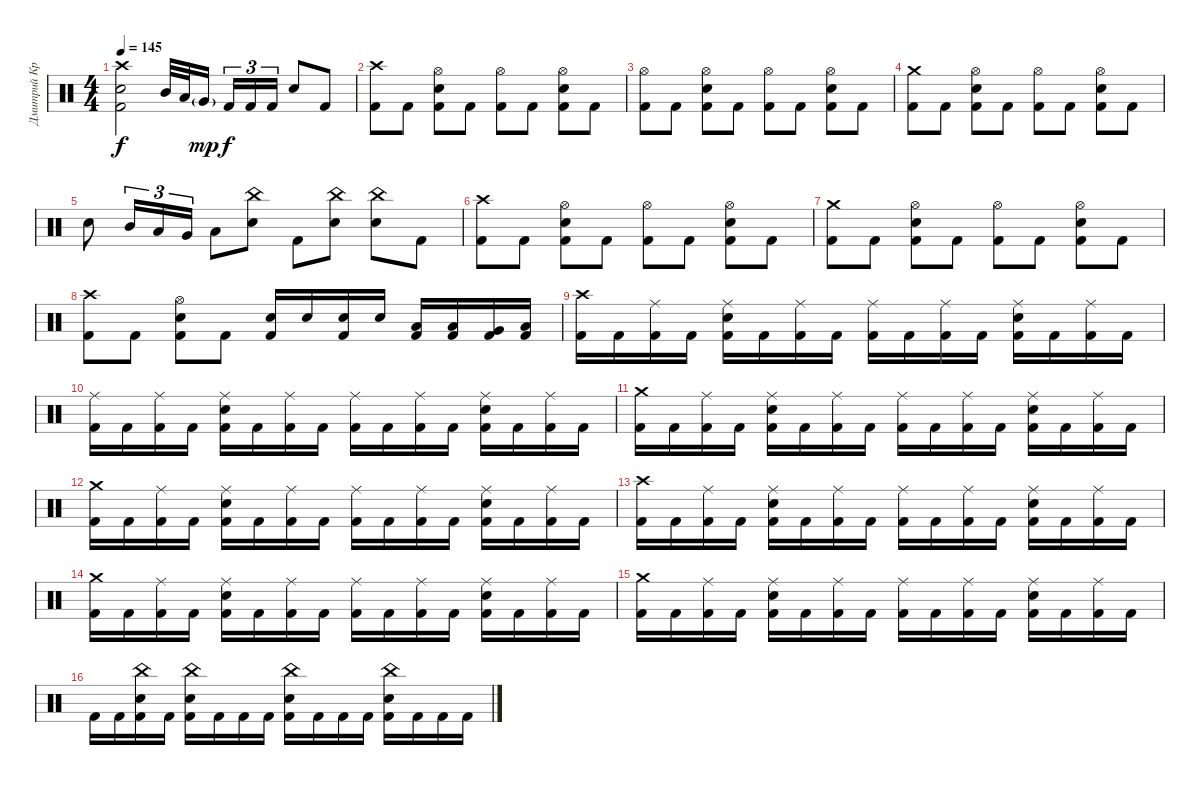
\track ("Дмитрий Кривенков" "Дмитрий Кр") {instrument percussion}
\staff {score}
\articulation defaults
\ts (4 4)
\tempo 145
\clef neutral
\ks c
("Crash high (hit)" "Electric Snare (hit)" "Kick (hit) 2").2{dy f} "Mid Tom (hit)".32 "Low Tom (hit)".32 "Very Low Tom (hit)"{g}.16{dy mp beam splitsecondary} "Kick (hit) 2".16{tu (3 2) dy f} "Kick (hit) 2".16{tu (3 2)} "Kick (hit) 2".16{tu (3 2)} "Electric Snare (hit)".8 "Kick (hit) 2".8 |
("Crash high (hit)" "Kick (hit) 2").8 "Kick (hit) 2".8 ("Hi-Hat (open)" "Electric Snare (hit)" "Kick (hit) 2").8 "Kick (hit) 2".8 ("Hi-Hat (open)" "Kick (hit) 2").8 "Kick (hit) 2".8 ("Hi-Hat (open)" "Electric Snare (hit)" "Kick (hit) 2").8 "Kick (hit) 2".8 |
("Hi-Hat (open)" "Kick (hit) 2").8 "Kick (hit) 2".8 ("Hi-Hat (open)" "Electric Snare (hit)" "Kick (hit) 2").8 "Kick (hit) 2".8 ("Hi-Hat (open)" "Kick (hit) 2").8 "Kick (hit) 2".8 ("Hi-Hat (open)" "Electric Snare (hit)" "Kick (hit) 2").8 "Kick (hit) 2".8 |
("Crash medium (hit)" "Kick (hit) 2").8 "Kick (hit) 2".8 ("Hi-Hat (open)" "Electric Snare (hit)" "Kick (hit) 2").8 "Kick (hit) 2".8 ("Hi-Hat (open)" "Kick (hit) 2").8 "Kick (hit) 2".8 ("Hi-Hat (open)" "Electric Snare (hit)" "Kick (hit) 2").8 "Kick (hit) 2".8 |
"Electric Snare (hit)".8 "Mid Tom (hit)".16{tu (3 2)} "Low Tom (hit)".16{tu (3 2)} "Very Low Tom (hit)".16{tu (3 2)} "Low Floor Tom (hit)".8 ("China (hit)" "Electric Snare (hit)").8 "Kick (hit) 2".8 ("China (hit)" "Electric Snare (hit)").8 ("China (hit)" "Electric Snare (hit)").8 "Kick (hit) 2".8 |
("Crash high (hit)" "Kick (hit) 2").8 "Kick (hit) 2".8 ("Hi-Hat (open)" "Electric Snare (hit)" "Kick (hit) 2").8 "Kick (hit) 2".8 ("Hi-Hat (open)" "Kick (hit) 2").8 "Kick (hit) 2".8 ("Hi-Hat (open)" "Electric Snare (hit)" "Kick (hit) 2").8 "Kick (hit) 2".8 |
("Crash medium (hit)" "Kick (hit) 2").8 "Kick (hit) 2".8 ("Hi-Hat (open)" "Electric Snare (hit)" "Kick (hit) 2").8 "Kick (hit) 2".8 ("Hi-Hat (open)" "Kick (hit) 2").8 "Kick (hit) 2".8 ("Hi-Hat (open)" "Electric Snare (hit)" "Kick (hit) 2").8 "Kick (hit) 2".8 |
("Crash high (hit)" "Kick (hit) 2").8 "Kick (hit) 2".8 ("Hi-Hat (open)" "Electric Snare (hit)" "Kick (hit) 2").8 "Kick (hit) 2".8 ("Electric Snare (hit)" "Kick (hit) 2").16 "Electric Snare (hit)".16 ("Electric Snare (hit)" "Kick (hit) 2").16 "Electric Snare (hit)".16 ("Low Tom (hit)" "Kick (hit) 2").16 ("Low Tom (hit)" "Kick (hit) 2").16 ("Very Low Tom (hit)" "Kick (hit) 2").16 ("Low Floor Tom (hit)" "Kick (hit) 2").16 |
("Crash high (hit)" "Kick (hit) 2").16 "Kick (hit) 2".16 ("Ride (middle)" "Kick (hit) 2").16 "Kick (hit) 2".16 ("Ride (middle)" "Electric Snare (hit)" "Kick (hit) 2").16 "Kick (hit) 2".16 ("Ride (middle)" "Kick (hit) 2").16 "Kick (hit) 2".16 ("Ride (middle)" "Kick (hit) 2").16 "Kick (hit) 2".16 ("Ride (middle)" "Kick (hit) 2").16 "Kick (hit) 2".16 ("Ride (middle)" "Electric Snare (hit)" "Kick (hit) 2").16 "Kick (hit) 2".16 ("Ride (middle)" "Kick (hit) 2").16 "Kick (hit) 2".16 |
("Ride (middle)" "Kick (hit) 2").16 "Kick (hit) 2".16 ("Ride (middle)" "Kick (hit) 2").16 "Kick (hit) 2".16 ("Ride (middle)" "Electric Snare (hit)" "Kick (hit) 2").16 "Kick (hit) 2".16 ("Ride (middle)" "Kick (hit) 2").16 "Kick (hit) 2".16 ("Ride (middle)" "Kick (hit) 2").16 "Kick (hit) 2".16 ("Ride (middle)" "Kick (hit) 2").16 "Kick (hit) 2".16 ("Ride (middle)" "Electric Snare (hit)" "Kick (hit) 2").16 "Kick (hit) 2".16 ("Ride (middle)" "Kick (hit) 2").16 "Kick (hit) 2".16 |
("Crash medium (hit)" "Kick (hit) 2").16 "Kick (hit) 2".16 ("Ride (middle)" "Kick (hit) 2").16 "Kick (hit) 2".16 ("Ride (middle)" "Electric Snare (hit)" "Kick (hit) 2").16 "Kick (hit) 2".16 ("Ride (middle)" "Kick (hit) 2").16 "Kick (hit) 2".16 ("Ride (middle)" "Kick (hit) 2").16 "Kick (hit) 2".16 ("Ride (middle)" "Kick (hit) 2").16 "Kick (hit) 2".16 ("Ride (middle)" "Electric Snare (hit)" "Kick (hit) 2").16 "Kick (hit) 2".16 ("Ride (middle)" "Kick (hit) 2").16 "Kick (hit) 2".16 |
("Crash medium (hit)" "Kick (hit) 2").16 "Kick (hit) 2".16 ("Ride (middle)" "Kick (hit) 2").16 "Kick (hit) 2".16 ("Ride (middle)" "Electric Snare (hit)" "Kick (hit) 2").16 "Kick (hit) 2".16 ("Ride (middle)" "Kick (hit) 2").16 "Kick (hit) 2".16 ("Ride (middle)" "Kick (hit) 2").16 "Kick (hit) 2".16 ("Ride (middle)" "Kick (hit) 2").16 "Kick (hit) 2".16 ("Ride (middle)" "Electric Snare (hit)" "Kick (hit) 2").16 "Kick (hit) 2".16 ("Ride (middle)" "Kick (hit) 2").16 "Kick (hit) 2".16 |
("Crash high (hit)" "Kick (hit) 2").16 "Kick (hit) 2".16 ("Ride (middle)" "Kick (hit) 2").16 "Kick (hit) 2".16 ("Ride (middle)" "Electric Snare (hit)" "Kick (hit) 2").16 "Kick (hit) 2".16 ("Ride (middle)" "Kick (hit) 2").16 "Kick (hit) 2".16 ("Ride (middle)" "Kick (hit) 2").16 "Kick (hit) 2".16 ("Ride (middle)" "Kick (hit) 2").16 "Kick (hit) 2".16 ("Ride (middle)" "Electric Snare (hit)" "Kick (hit) 2").16 "Kick (hit) 2".16 ("Ride (middle)" "Kick (hit) 2").16 "Kick (hit) 2".16 |
("Crash medium (hit)" "Kick (hit) 2").16 "Kick (hit) 2".16 ("Ride (middle)" "Kick (hit) 2").16 "Kick (hit) 2".16 ("Ride (middle)" "Electric Snare (hit)" "Kick (hit) 2").16 "Kick (hit) 2".16 ("Ride (middle)" "Kick (hit) 2").16 "Kick (hit) 2".16 ("Ride (middle)" "Kick (hit) 2").16 "Kick (hit) 2".16 ("Ride (middle)" "Kick (hit) 2").16 "Kick (hit) 2".16 ("Ride (middle)" "Electric Snare (hit)" "Kick (hit) 2").16 "Kick (hit) 2".16 ("Ride (middle)" "Kick (hit) 2").16 "Kick (hit) 2".16 |
("Crash medium (hit)" "Kick (hit) 2").16 "Kick (hit) 2".16 ("Ride (middle)" "Kick (hit) 2").16 "Kick (hit) 2".16 ("Ride (middle)" "Electric Snare (hit)" "Kick (hit) 2").16 "Kick (hit) 2".16 ("Ride (middle)" "Kick (hit) 2").16 "Kick (hit) 2".16 ("Ride (middle)" "Kick (hit) 2").16 "Kick (hit) 2".16 ("Ride (middle)" "Kick (hit) 2").16 "Kick (hit) 2".16 ("Ride (middle)" "Electric Snare (hit)" "Kick (hit) 2").16 "Kick (hit) 2".16 ("Ride (middle)" "Kick (hit) 2").16 "Kick (hit) 2".16 |
"Kick (hit) 2".16 "Kick (hit) 2".16 ("China (hit)" "Electric Snare (hit)" "Kick (hit) 2").16 "Kick (hit) 2".16 ("China (hit)" "Electric Snare (hit)" "Kick (hit) 2").16 "Kick (hit) 2".16 "Kick (hit) 2".16 "Kick (hit) 2".16 ("China (hit)" "Electric Snare (hit)" "Kick (hit) 2").16 "Kick (hit) 2".16 "Kick (hit) 2".16 "Kick (hit) 2".16 ("China (hit)" "Electric Snare (hit)" "Kick (hit) 2").16 "Kick (hit) 2".16 "Kick (hit) 2".16 "Kick (hit) 2".16
